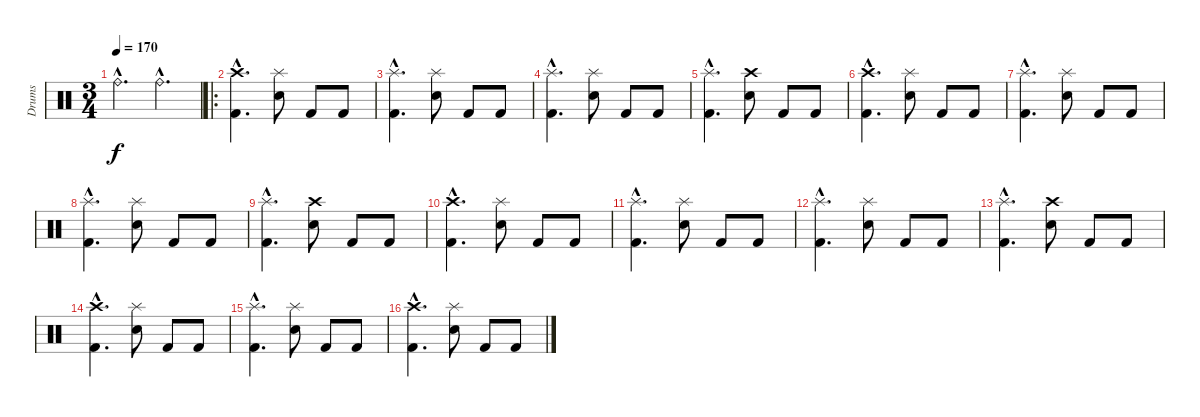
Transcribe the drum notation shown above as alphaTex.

\track ("Drums" "Drums") {instrument percussion}
\staff {score}
\articulation defaults
\ts (3 4)
\tempo 170
\clef neutral
\ks c "Ride (bell)"{hac}.4{d dy f} "Ride (bell)"{hac}.4{d}
|
\ro
("Crash high (hit)"{hac} "Kick (hit) 2"{hac}).4{d} ("Splash (hit)" "Electric Snare (hit)").8 "Kick (hit) 2".8 "Kick (hit) 2".8 |
("Splash (hit)"{hac} "Kick (hit) 2"{hac}).4{d} ("Splash (hit)" "Electric Snare (hit)").8 "Kick (hit) 2".8 "Kick (hit) 2".8 |
("Splash (hit)"{hac} "Kick (hit) 2"{hac}).4{d} ("Splash (hit)" "Electric Snare (hit)").8 "Kick (hit) 2".8 "Kick (hit) 2".8 |
("Splash (hit)"{hac} "Kick (hit) 2"{hac}).4{d} ("Crash high (hit)" "Electric Snare (hit)").8 "Kick (hit) 2".8 "Kick (hit) 2".8 |
("Crash high (hit)"{hac} "Kick (hit) 2"{hac}).4{d} ("Splash (hit)" "Electric Snare (hit)").8 "Kick (hit) 2".8 "Kick (hit) 2".8 |
("Splash (hit)"{hac} "Kick (hit) 2"{hac}).4{d} ("Splash (hit)" "Electric Snare (hit)").8 "Kick (hit) 2".8 "Kick (hit) 2".8 |
("Splash (hit)"{hac} "Kick (hit) 2"{hac}).4{d} ("Splash (hit)" "Electric Snare (hit)").8 "Kick (hit) 2".8 "Kick (hit) 2".8 |
("Splash (hit)"{hac} "Kick (hit) 2"{hac}).4{d} ("Crash high (hit)" "Electric Snare (hit)").8 "Kick (hit) 2".8 "Kick (hit) 2".8 |
("Crash high (hit)"{hac} "Kick (hit) 2"{hac}).4{d} ("Splash (hit)" "Electric Snare (hit)").8 "Kick (hit) 2".8 "Kick (hit) 2".8 |
("Splash (hit)"{hac} "Kick (hit) 2"{hac}).4{d} ("Splash (hit)" "Electric Snare (hit)").8 "Kick (hit) 2".8 "Kick (hit) 2".8 |
("Splash (hit)"{hac} "Kick (hit) 2"{hac}).4{d} ("Splash (hit)" "Electric Snare (hit)").8 "Kick (hit) 2".8 "Kick (hit) 2".8 |
("Splash (hit)"{hac} "Kick (hit) 2"{hac}).4{d} ("Crash high (hit)" "Electric Snare (hit)").8 "Kick (hit) 2".8 "Kick (hit) 2".8 |
("Crash high (hit)"{hac} "Kick (hit) 2"{hac}).4{d} ("Splash (hit)" "Electric Snare (hit)").8 "Kick (hit) 2".8 "Kick (hit) 2".8 |
("Splash (hit)"{hac} "Kick (hit) 2"{hac}).4{d} ("Splash (hit)" "Electric Snare (hit)").8 "Kick (hit) 2".8 "Kick (hit) 2".8 |
("Crash high (hit)"{hac} "Kick (hit) 2"{hac}).4{d} ("Splash (hit)" "Electric Snare (hit)").8 "Kick (hit) 2".8 "Kick (hit) 2".8
